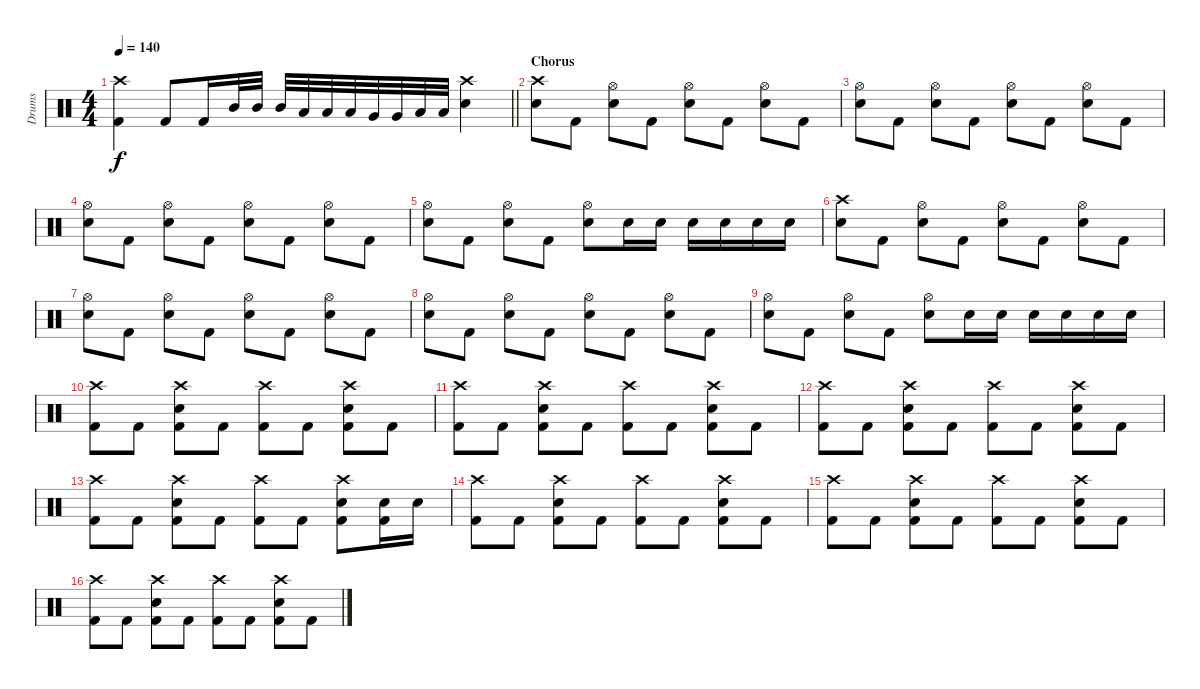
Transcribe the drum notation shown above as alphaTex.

\track ("Drums" "Drums") {instrument percussion}
\staff {score}
\articulation defaults
\ts (4 4)
\tempo 140
\clef neutral
\barLineRight lightlight
\ks c
("Crash high (hit)" "Kick (hit) 2").4{dy f} "Kick (hit) 2".8 "Kick (hit) 2".16 "Mid Tom (hit)".32 "Mid Tom (hit)".32 "Mid Tom (hit)".32 "Low Tom (hit)".32 "Low Tom (hit)".32 "Low Tom (hit)".32 "Very Low Tom (hit)".32 "Very Low Tom (hit)".32 "Low Floor Tom (hit)".32 "Low Floor Tom (hit)".32 ("Crash high (hit)" "Electric Snare (hit)").4 |
\section ("" "Chorus")
("Crash high (hit)" "Electric Snare (hit)").8 "Kick (hit) 2".8 ("Hi-Hat (open)" "Electric Snare (hit)").8 "Kick (hit) 2".8 ("Hi-Hat (open)" "Electric Snare (hit)").8 "Kick (hit) 2".8 ("Hi-Hat (open)" "Electric Snare (hit)").8 "Kick (hit) 2".8 |
("Hi-Hat (open)" "Electric Snare (hit)").8 "Kick (hit) 2".8 ("Hi-Hat (open)" "Electric Snare (hit)").8 "Kick (hit) 2".8 ("Hi-Hat (open)" "Electric Snare (hit)").8 "Kick (hit) 2".8 ("Hi-Hat (open)" "Electric Snare (hit)").8 "Kick (hit) 2".8 |
("Hi-Hat (open)" "Electric Snare (hit)").8 "Kick (hit) 2".8 ("Hi-Hat (open)" "Electric Snare (hit)").8 "Kick (hit) 2".8 ("Hi-Hat (open)" "Electric Snare (hit)").8 "Kick (hit) 2".8 ("Hi-Hat (open)" "Electric Snare (hit)").8 "Kick (hit) 2".8 |
("Hi-Hat (open)" "Electric Snare (hit)").8 "Kick (hit) 2".8 ("Hi-Hat (open)" "Electric Snare (hit)").8 "Kick (hit) 2".8 ("Hi-Hat (open)" "Electric Snare (hit)").8 "Electric Snare (hit)".16 "Electric Snare (hit)".16 "Electric Snare (hit)".16 "Electric Snare (hit)".16 "Electric Snare (hit)".16 "Electric Snare (hit)".16 |
("Crash high (hit)" "Electric Snare (hit)").8 "Kick (hit) 2".8 ("Hi-Hat (open)" "Electric Snare (hit)").8 "Kick (hit) 2".8 ("Hi-Hat (open)" "Electric Snare (hit)").8 "Kick (hit) 2".8 ("Hi-Hat (open)" "Electric Snare (hit)").8 "Kick (hit) 2".8 |
("Hi-Hat (open)" "Electric Snare (hit)").8 "Kick (hit) 2".8 ("Hi-Hat (open)" "Electric Snare (hit)").8 "Kick (hit) 2".8 ("Hi-Hat (open)" "Electric Snare (hit)").8 "Kick (hit) 2".8 ("Hi-Hat (open)" "Electric Snare (hit)").8 "Kick (hit) 2".8 |
("Hi-Hat (open)" "Electric Snare (hit)").8 "Kick (hit) 2".8 ("Hi-Hat (open)" "Electric Snare (hit)").8 "Kick (hit) 2".8 ("Hi-Hat (open)" "Electric Snare (hit)").8 "Kick (hit) 2".8 ("Hi-Hat (open)" "Electric Snare (hit)").8 "Kick (hit) 2".8 |
("Hi-Hat (open)" "Electric Snare (hit)").8 "Kick (hit) 2".8 ("Hi-Hat (open)" "Electric Snare (hit)").8 "Kick (hit) 2".8 ("Hi-Hat (open)" "Electric Snare (hit)").8 "Electric Snare (hit)".16 "Electric Snare (hit)".16 "Electric Snare (hit)".16 "Electric Snare (hit)".16 "Electric Snare (hit)".16 "Electric Snare (hit)".16 |
("Crash high (hit)" "Kick (hit) 2").8 "Kick (hit) 2".8 ("Crash high (hit)" "Electric Snare (hit)" "Kick (hit) 2").8 "Kick (hit) 2".8 ("Crash high (hit)" "Kick (hit) 2").8 "Kick (hit) 2".8 ("Crash high (hit)" "Electric Snare (hit)" "Kick (hit) 2").8 "Kick (hit) 2".8 |
("Crash high (hit)" "Kick (hit) 2").8 "Kick (hit) 2".8 ("Crash high (hit)" "Electric Snare (hit)" "Kick (hit) 2").8 "Kick (hit) 2".8 ("Crash high (hit)" "Kick (hit) 2").8 "Kick (hit) 2".8 ("Crash high (hit)" "Electric Snare (hit)" "Kick (hit) 2").8 "Kick (hit) 2".8 |
("Crash high (hit)" "Kick (hit) 2").8 "Kick (hit) 2".8 ("Crash high (hit)" "Electric Snare (hit)" "Kick (hit) 2").8 "Kick (hit) 2".8 ("Crash high (hit)" "Kick (hit) 2").8 "Kick (hit) 2".8 ("Crash high (hit)" "Electric Snare (hit)" "Kick (hit) 2").8 "Kick (hit) 2".8 |
("Crash high (hit)" "Kick (hit) 2").8 "Kick (hit) 2".8 ("Crash high (hit)" "Electric Snare (hit)" "Kick (hit) 2").8 "Kick (hit) 2".8 ("Crash high (hit)" "Kick (hit) 2").8 "Kick (hit) 2".8 ("Crash high (hit)" "Electric Snare (hit)" "Kick (hit) 2").8 ("Electric Snare (hit)" "Kick (hit) 2").16 "Electric Snare (hit)".16 |
("Crash high (hit)" "Kick (hit) 2").8 "Kick (hit) 2".8 ("Crash high (hit)" "Electric Snare (hit)" "Kick (hit) 2").8 "Kick (hit) 2".8 ("Crash high (hit)" "Kick (hit) 2").8 "Kick (hit) 2".8 ("Crash high (hit)" "Electric Snare (hit)" "Kick (hit) 2").8 "Kick (hit) 2".8 |
("Crash high (hit)" "Kick (hit) 2").8 "Kick (hit) 2".8 ("Crash high (hit)" "Electric Snare (hit)" "Kick (hit) 2").8 "Kick (hit) 2".8 ("Crash high (hit)" "Kick (hit) 2").8 "Kick (hit) 2".8 ("Crash high (hit)" "Electric Snare (hit)" "Kick (hit) 2").8 "Kick (hit) 2".8 |
("Crash high (hit)" "Kick (hit) 2").8 "Kick (hit) 2".8 ("Crash high (hit)" "Electric Snare (hit)" "Kick (hit) 2").8 "Kick (hit) 2".8 ("Crash high (hit)" "Kick (hit) 2").8 "Kick (hit) 2".8 ("Crash high (hit)" "Electric Snare (hit)" "Kick (hit) 2").8 "Kick (hit) 2".8
